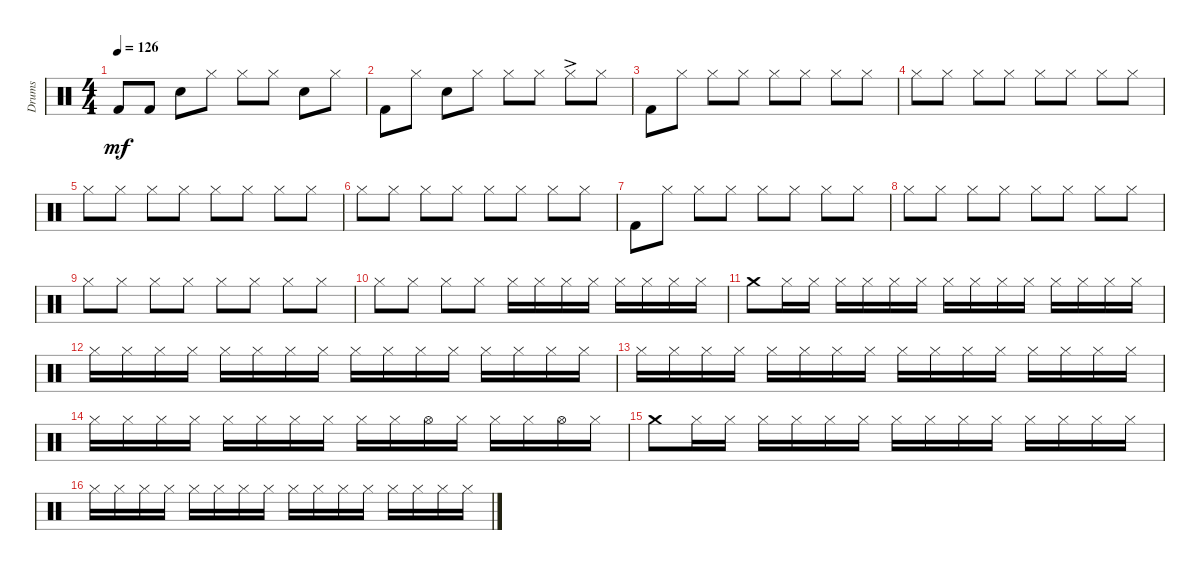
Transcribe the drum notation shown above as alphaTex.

\track ("Drums" "Drums") {instrument percussion}
\staff {score}
\articulation defaults
\ts (4 4)
\tempo 126
\clef neutral
\ks c "Kick (hit) 2".8{dy mf} "Kick (hit) 2".8 "Snare (hit) 2".8 "Hi-Hat (closed)".8 "Hi-Hat (closed)".8 "Hi-Hat (closed)".8 "Snare (hit) 2".8 "Hi-Hat (closed)".8
|
"Kick (hit) 2".8 "Hi-Hat (closed)".8 "Snare (hit) 2".8 "Hi-Hat (closed)".8 "Hi-Hat (closed)".8 "Hi-Hat (closed)".8 "Hi-Hat (closed)"{ac}.8 "Hi-Hat (closed)".8 |
"Kick (hit) 2".8 "Hi-Hat (closed)".8 "Hi-Hat (closed)".8 "Hi-Hat (closed)".8 "Hi-Hat (closed)".8 "Hi-Hat (closed)".8 "Hi-Hat (closed)".8 "Hi-Hat (closed)".8 |
"Hi-Hat (closed)".8 "Hi-Hat (closed)".8 "Hi-Hat (closed)".8 "Hi-Hat (closed)".8 "Hi-Hat (closed)".8 "Hi-Hat (closed)".8 "Hi-Hat (closed)".8 "Hi-Hat (closed)".8 |
"Hi-Hat (closed)".8 "Hi-Hat (closed)".8 "Hi-Hat (closed)".8 "Hi-Hat (closed)".8 "Hi-Hat (closed)".8 "Hi-Hat (closed)".8 "Hi-Hat (closed)".8 "Hi-Hat (closed)".8 |
"Hi-Hat (closed)".8 "Hi-Hat (closed)".8 "Hi-Hat (closed)".8 "Hi-Hat (closed)".8 "Hi-Hat (closed)".8 "Hi-Hat (closed)".8 "Hi-Hat (closed)".8 "Hi-Hat (closed)".8 |
"Kick (hit) 2".8 "Hi-Hat (closed)".8 "Hi-Hat (closed)".8 "Hi-Hat (closed)".8 "Hi-Hat (closed)".8 "Hi-Hat (closed)".8 "Hi-Hat (closed)".8 "Hi-Hat (closed)".8 |
"Hi-Hat (closed)".8 "Hi-Hat (closed)".8 "Hi-Hat (closed)".8 "Hi-Hat (closed)".8 "Hi-Hat (closed)".8 "Hi-Hat (closed)".8 "Hi-Hat (closed)".8 "Hi-Hat (closed)".8 |
"Hi-Hat (closed)".8 "Hi-Hat (closed)".8 "Hi-Hat (closed)".8 "Hi-Hat (closed)".8 "Hi-Hat (closed)".8 "Hi-Hat (closed)".8 "Hi-Hat (closed)".8 "Hi-Hat (closed)".8 |
"Hi-Hat (closed)".8 "Hi-Hat (closed)".8 "Hi-Hat (closed)".8 "Hi-Hat (closed)".8 "Hi-Hat (closed)".16 "Hi-Hat (closed)".16 "Hi-Hat (closed)".16 "Hi-Hat (closed)".16 "Hi-Hat (closed)".16 "Hi-Hat (closed)".16 "Hi-Hat (closed)".16 "Hi-Hat (closed)".16 |
"Crash medium (hit)".8 "Hi-Hat (closed)".16 "Hi-Hat (closed)".16 "Hi-Hat (closed)".16 "Hi-Hat (closed)".16 "Hi-Hat (closed)".16 "Hi-Hat (closed)".16 "Hi-Hat (closed)".16 "Hi-Hat (closed)".16 "Hi-Hat (closed)".16 "Hi-Hat (closed)".16 "Hi-Hat (closed)".16 "Hi-Hat (closed)".16 "Hi-Hat (closed)".16 "Hi-Hat (closed)".16 |
"Hi-Hat (closed)".16 "Hi-Hat (closed)".16 "Hi-Hat (closed)".16 "Hi-Hat (closed)".16 "Hi-Hat (closed)".16 "Hi-Hat (closed)".16 "Hi-Hat (closed)".16 "Hi-Hat (closed)".16 "Hi-Hat (closed)".16 "Hi-Hat (closed)".16 "Hi-Hat (closed)".16 "Hi-Hat (closed)".16 "Hi-Hat (closed)".16 "Hi-Hat (closed)".16 "Hi-Hat (closed)".16 "Hi-Hat (closed)".16 |
"Hi-Hat (closed)".16 "Hi-Hat (closed)".16 "Hi-Hat (closed)".16 "Hi-Hat (closed)".16 "Hi-Hat (closed)".16 "Hi-Hat (closed)".16 "Hi-Hat (closed)".16 "Hi-Hat (closed)".16 "Hi-Hat (closed)".16 "Hi-Hat (closed)".16 "Hi-Hat (closed)".16 "Hi-Hat (closed)".16 "Hi-Hat (closed)".16 "Hi-Hat (closed)".16 "Hi-Hat (closed)".16 "Hi-Hat (closed)".16 |
"Hi-Hat (closed)".16 "Hi-Hat (closed)".16 "Hi-Hat (closed)".16 "Hi-Hat (closed)".16 "Hi-Hat (closed)".16 "Hi-Hat (closed)".16 "Hi-Hat (closed)".16 "Hi-Hat (closed)".16 "Hi-Hat (closed)".16 "Hi-Hat (closed)".16 "Hi-Hat (open)".16 "Hi-Hat (closed)".16 "Hi-Hat (closed)".16 "Hi-Hat (closed)".16 "Hi-Hat (open)".16 "Hi-Hat (closed)".16 |
"Crash medium (hit)".8 "Hi-Hat (closed)".16 "Hi-Hat (closed)".16 "Hi-Hat (closed)".16 "Hi-Hat (closed)".16 "Hi-Hat (closed)".16 "Hi-Hat (closed)".16 "Hi-Hat (closed)".16 "Hi-Hat (closed)".16 "Hi-Hat (closed)".16 "Hi-Hat (closed)".16 "Hi-Hat (closed)".16 "Hi-Hat (closed)".16 "Hi-Hat (closed)".16 "Hi-Hat (closed)".16 |
"Hi-Hat (closed)".16 "Hi-Hat (closed)".16 "Hi-Hat (closed)".16 "Hi-Hat (closed)".16 "Hi-Hat (closed)".16 "Hi-Hat (closed)".16 "Hi-Hat (closed)".16 "Hi-Hat (closed)".16 "Hi-Hat (closed)".16 "Hi-Hat (closed)".16 "Hi-Hat (closed)".16 "Hi-Hat (closed)".16 "Hi-Hat (closed)".16 "Hi-Hat (closed)".16 "Hi-Hat (closed)".16 "Hi-Hat (closed)".16
